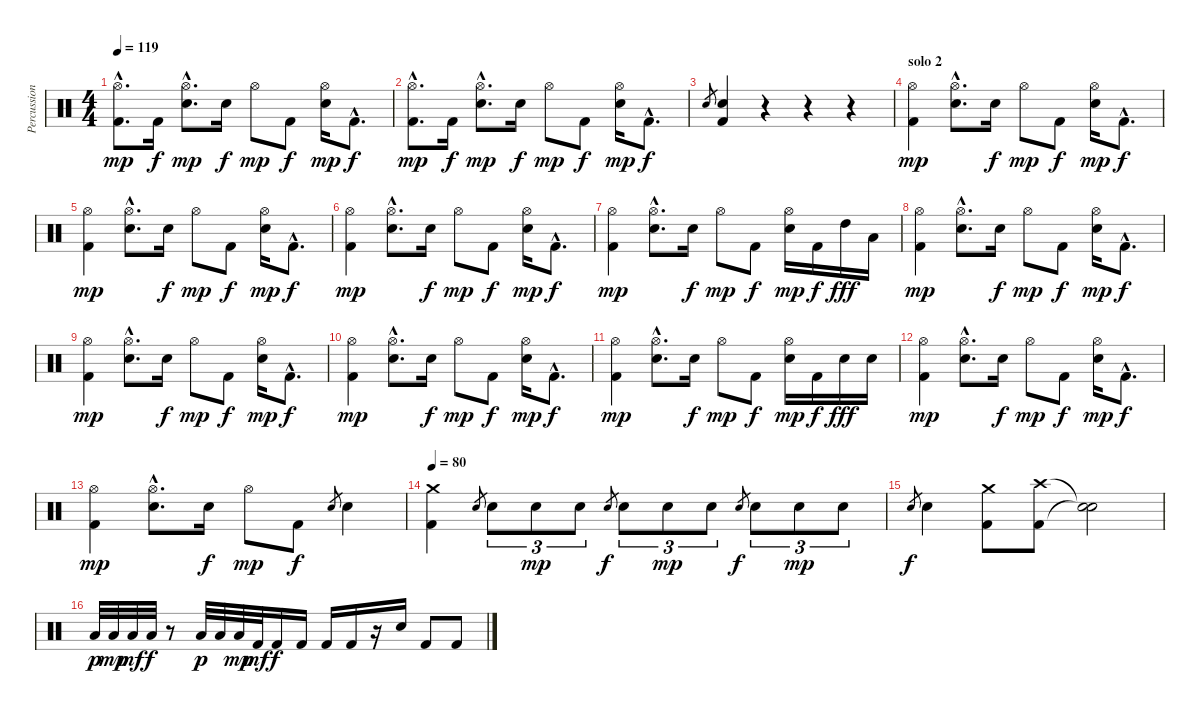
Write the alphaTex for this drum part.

\track ("Percussions" "Percussion") {instrument percussion}
\staff {score}
\articulation defaults
\ts (4 4)
\tempo 119
\clef neutral
\ks c
("Hi-Hat (open)"{hac} "Kick (hit) 2"{hac}).8{d dy mp} "Kick (hit) 2".16{dy f} ("Hi-Hat (open)"{hac} "Snare (hit) 2"{hac}).8{d dy mp} "Electric Snare (hit)".16{dy f} "Hi-Hat (open)".8{dy mp} "Kick (hit) 2".8{dy f} ("Hi-Hat (open)" "Snare (hit) 2").16{dy mp} "Kick (hit) 2"{hac}.8{d dy f} |
("Hi-Hat (open)"{hac} "Kick (hit) 2"{hac}).8{d dy mp} "Kick (hit) 2".16{dy f} ("Hi-Hat (open)"{hac} "Snare (hit) 2"{hac}).8{d dy mp} "Electric Snare (hit)".16{dy f} "Hi-Hat (open)".8{dy mp} "Kick (hit) 2".8{dy f} ("Hi-Hat (open)" "Snare (hit) 2").16{dy mp} "Kick (hit) 2"{hac}.8{d dy f} |
"Snare (hit) 2".8{gr} ("Snare (hit) 2" "Kick (hit) 2").4 r.4 r.4 r.4 |
\section ("" "solo 2")
("Hi-Hat (open)" "Kick (hit) 2").4{dy mp} ("Hi-Hat (open)"{hac} "Snare (hit) 2"{hac}).8{d} "Snare (hit) 2".16{dy f} "Hi-Hat (open)".8{dy mp} "Kick (hit) 2".8{dy f} ("Hi-Hat (open)" "Snare (hit) 2").16{dy mp} "Kick (hit) 2"{hac}.8{d dy f} |
("Hi-Hat (open)" "Kick (hit) 2").4{dy mp} ("Hi-Hat (open)"{hac} "Snare (hit) 2"{hac}).8{d} "Snare (hit) 2".16{dy f} "Hi-Hat (open)".8{dy mp} "Kick (hit) 2".8{dy f} ("Hi-Hat (open)" "Snare (hit) 2").16{dy mp} "Kick (hit) 2"{hac}.8{d dy f} |
("Hi-Hat (open)" "Kick (hit) 2").4{dy mp} ("Hi-Hat (open)"{hac} "Snare (hit) 2"{hac}).8{d} "Snare (hit) 2".16{dy f} "Hi-Hat (open)".8{dy mp} "Kick (hit) 2".8{dy f} ("Hi-Hat (open)" "Snare (hit) 2").16{dy mp} "Kick (hit) 2"{hac}.8{d dy f} |
("Hi-Hat (open)" "Kick (hit) 2").4{dy mp} ("Hi-Hat (open)"{hac} "Snare (hit) 2"{hac}).8{d} "Snare (hit) 2".16{dy f} "Hi-Hat (open)".8{dy mp} "Kick (hit) 2".8{dy f} ("Hi-Hat (open)" "Snare (hit) 2").16{dy mp} "Kick (hit) 2".16{dy f} "High Tom (hit)".16{dy fff} "Low Tom (hit)".16 |
("Hi-Hat (open)" "Kick (hit) 2").4{dy mp} ("Hi-Hat (open)"{hac} "Snare (hit) 2"{hac}).8{d} "Snare (hit) 2".16{dy f} "Hi-Hat (open)".8{dy mp} "Kick (hit) 2".8{dy f} ("Hi-Hat (open)" "Snare (hit) 2").16{dy mp} "Kick (hit) 2"{hac}.8{d dy f} |
("Hi-Hat (open)" "Kick (hit) 2").4{dy mp} ("Hi-Hat (open)"{hac} "Snare (hit) 2"{hac}).8{d} "Snare (hit) 2".16{dy f} "Hi-Hat (open)".8{dy mp} "Kick (hit) 2".8{dy f} ("Hi-Hat (open)" "Snare (hit) 2").16{dy mp} "Kick (hit) 2"{hac}.8{d dy f} |
("Hi-Hat (open)" "Kick (hit) 2").4{dy mp} ("Hi-Hat (open)"{hac} "Snare (hit) 2"{hac}).8{d} "Snare (hit) 2".16{dy f} "Hi-Hat (open)".8{dy mp} "Kick (hit) 2".8{dy f} ("Hi-Hat (open)" "Snare (hit) 2").16{dy mp} "Kick (hit) 2"{hac}.8{d dy f} |
("Hi-Hat (open)" "Kick (hit) 2").4{dy mp} ("Hi-Hat (open)"{hac} "Snare (hit) 2"{hac}).8{d} "Snare (hit) 2".16{dy f} "Hi-Hat (open)".8{dy mp} "Kick (hit) 2".8{dy f} ("Hi-Hat (open)" "Snare (hit) 2").16{dy mp} "Kick (hit) 2".16{dy f} "Snare (hit) 2".16{dy fff} "Snare (hit) 2".16 |
("Hi-Hat (open)" "Kick (hit) 2").4{dy mp} ("Hi-Hat (open)"{hac} "Snare (hit) 2"{hac}).8{d} "Snare (hit) 2".16{dy f} "Hi-Hat (open)".8{dy mp} "Kick (hit) 2".8{dy f} ("Hi-Hat (open)" "Snare (hit) 2").16{dy mp} "Kick (hit) 2"{hac}.8{d dy f} |
("Hi-Hat (open)" "Kick (hit) 2").4{dy mp} ("Hi-Hat (open)"{hac} "Snare (hit) 2"{hac}).8{d} "Snare (hit) 2".16{dy f} "Hi-Hat (open)".8{dy mp} "Kick (hit) 2".8{dy f} "Snare (hit) 2".8{gr} "Snare (hit) 2".4 |
\tempo 80
("Crash medium (hit)" "Kick (hit) 2").4 "Electric Snare (hit)".8{gr} "Electric Snare (hit)".8{tu (3 2)} "Electric Snare (hit)".8{tu (3 2) dy mp} "Electric Snare (hit)".8{tu (3 2)} "Electric Snare (hit)".8{gr dy f} "Electric Snare (hit)".8{tu (3 2)} "Electric Snare (hit)".8{tu (3 2) dy mp} "Electric Snare (hit)".8{tu (3 2)} "Electric Snare (hit)".8{gr dy f} "Electric Snare (hit)".8{tu (3 2)} "Electric Snare (hit)".8{tu (3 2) dy mp} "Electric Snare (hit)".8{tu (3 2)} |
"Electric Snare (hit)".8{gr dy f} "Electric Snare (hit)".4 ("Crash medium (hit)" "Kick (hit) 2").8 ("Crash high (hit)" "Kick (hit) 2").8 ("Snare (hit)"{t} "Snare (hit)"{t}).2 |
"Low Tom (hit)".32{dy p} "Low Tom (hit)".32{dy mp} "Low Tom (hit)".32{dy mf} "Low Tom (hit)".32{dy f} r.8 "Low Tom (hit)".32{dy p} "Low Tom (hit)".32 "Low Tom (hit)".32{dy mp} "Kick (hit) 2".32{dy mf} "Kick (hit) 2".16{dy f} "Kick (hit) 2".16 "Kick (hit) 2".16 "Kick (hit) 2".16 r.16 "Electric Snare (hit)".16 "Kick (hit) 2".8 "Kick (hit) 2".8
